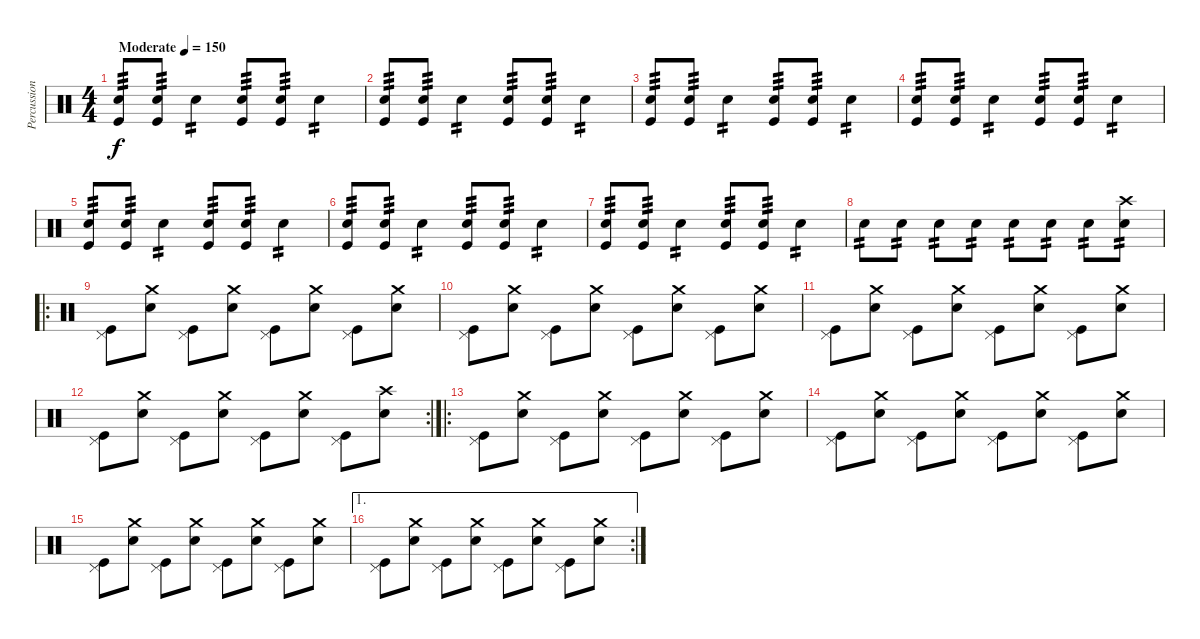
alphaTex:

\track ("Percussion" "Percussion") {instrument percussion}
\staff {score}
\articulation defaults
\ts (4 4)
\tempo (150 "Moderate")
\clef neutral
\ks c
("Snare (hit) 2" "Kick (hit)").8{tp 3 dy f} ("Snare (hit) 2" "Kick (hit)").8{tp 3} "Snare (hit) 2".4{tp 2} ("Snare (hit) 2" "Kick (hit)").8{tp 3} ("Snare (hit) 2" "Kick (hit)").8{tp 3} "Snare (hit) 2".4{tp 2} |
("Snare (hit) 2" "Kick (hit)").8{tp 3} ("Snare (hit) 2" "Kick (hit)").8{tp 3} "Snare (hit) 2".4{tp 2} ("Snare (hit) 2" "Kick (hit)").8{tp 3} ("Snare (hit) 2" "Kick (hit)").8{tp 3} "Snare (hit) 2".4{tp 2} |
("Snare (hit) 2" "Kick (hit)").8{tp 3} ("Snare (hit) 2" "Kick (hit)").8{tp 3} "Snare (hit) 2".4{tp 2} ("Snare (hit) 2" "Kick (hit)").8{tp 3} ("Snare (hit) 2" "Kick (hit)").8{tp 3} "Snare (hit) 2".4{tp 2} |
("Snare (hit) 2" "Kick (hit)").8{tp 3} ("Snare (hit) 2" "Kick (hit)").8{tp 3} "Snare (hit) 2".4{tp 2} ("Snare (hit) 2" "Kick (hit)").8{tp 3} ("Snare (hit) 2" "Kick (hit)").8{tp 3} "Snare (hit) 2".4{tp 2} |
("Snare (hit) 2" "Kick (hit)").8{tp 3} ("Snare (hit) 2" "Kick (hit)").8{tp 3} "Snare (hit) 2".4{tp 2} ("Snare (hit) 2" "Kick (hit)").8{tp 3} ("Snare (hit) 2" "Kick (hit)").8{tp 3} "Snare (hit) 2".4{tp 2} |
("Snare (hit) 2" "Kick (hit)").8{tp 3} ("Snare (hit) 2" "Kick (hit)").8{tp 3} "Snare (hit) 2".4{tp 2} ("Snare (hit) 2" "Kick (hit)").8{tp 3} ("Snare (hit) 2" "Kick (hit)").8{tp 3} "Snare (hit) 2".4{tp 2} |
("Snare (hit) 2" "Kick (hit)").8{tp 3} ("Snare (hit) 2" "Kick (hit)").8{tp 3} "Snare (hit) 2".4{tp 2} ("Snare (hit) 2" "Kick (hit)").8{tp 3} ("Snare (hit) 2" "Kick (hit)").8{tp 3} "Snare (hit) 2".4{tp 2} |
"Snare (hit) 2".8{tp 2} "Snare (hit) 2".8{tp 2} "Snare (hit) 2".8{tp 2} "Snare (hit) 2".8{tp 2} "Snare (hit) 2".8{tp 2} "Snare (hit) 2".8{tp 2} "Snare (hit) 2".8{tp 2} ("Crash high (hit)" "Snare (hit) 2").8{tp 2} |
\ro
("Pedal Hi-Hat (hit)" "Kick (hit)").8 ("Crash medium (hit)" "Snare (hit) 2").8 ("Pedal Hi-Hat (hit)" "Kick (hit)").8 ("Crash medium (hit)" "Snare (hit) 2").8 ("Pedal Hi-Hat (hit)" "Kick (hit)").8 ("Crash medium (hit)" "Snare (hit) 2").8 ("Pedal Hi-Hat (hit)" "Kick (hit)").8 ("Crash medium (hit)" "Snare (hit) 2").8 |
("Pedal Hi-Hat (hit)" "Kick (hit)").8 ("Crash medium (hit)" "Snare (hit) 2").8 ("Pedal Hi-Hat (hit)" "Kick (hit)").8 ("Crash medium (hit)" "Snare (hit) 2").8 ("Pedal Hi-Hat (hit)" "Kick (hit)").8 ("Crash medium (hit)" "Snare (hit) 2").8 ("Pedal Hi-Hat (hit)" "Kick (hit)").8 ("Crash medium (hit)" "Snare (hit) 2").8 |
("Pedal Hi-Hat (hit)" "Kick (hit)").8 ("Crash medium (hit)" "Snare (hit) 2").8 ("Pedal Hi-Hat (hit)" "Kick (hit)").8 ("Crash medium (hit)" "Snare (hit) 2").8 ("Pedal Hi-Hat (hit)" "Kick (hit)").8 ("Crash medium (hit)" "Snare (hit) 2").8 ("Pedal Hi-Hat (hit)" "Kick (hit)").8 ("Crash medium (hit)" "Snare (hit) 2").8 |
\rc 2
("Pedal Hi-Hat (hit)" "Kick (hit)").8 ("Crash medium (hit)" "Snare (hit) 2").8 ("Pedal Hi-Hat (hit)" "Kick (hit)").8 ("Crash medium (hit)" "Snare (hit) 2").8 ("Pedal Hi-Hat (hit)" "Kick (hit)").8 ("Crash medium (hit)" "Snare (hit) 2").8 ("Pedal Hi-Hat (hit)" "Kick (hit)").8 ("Crash high (hit)" "Snare (hit) 2").8 |
\ro
("Pedal Hi-Hat (hit)" "Kick (hit)").8 ("Crash medium (hit)" "Snare (hit) 2").8 ("Pedal Hi-Hat (hit)" "Kick (hit)").8 ("Crash medium (hit)" "Snare (hit) 2").8 ("Pedal Hi-Hat (hit)" "Kick (hit)").8 ("Crash medium (hit)" "Snare (hit) 2").8 ("Pedal Hi-Hat (hit)" "Kick (hit)").8 ("Crash medium (hit)" "Snare (hit) 2").8 |
("Pedal Hi-Hat (hit)" "Kick (hit)").8 ("Crash medium (hit)" "Snare (hit) 2").8 ("Pedal Hi-Hat (hit)" "Kick (hit)").8 ("Crash medium (hit)" "Snare (hit) 2").8 ("Pedal Hi-Hat (hit)" "Kick (hit)").8 ("Crash medium (hit)" "Snare (hit) 2").8 ("Pedal Hi-Hat (hit)" "Kick (hit)").8 ("Crash medium (hit)" "Snare (hit) 2").8 |
("Pedal Hi-Hat (hit)" "Kick (hit)").8 ("Crash medium (hit)" "Snare (hit) 2").8 ("Pedal Hi-Hat (hit)" "Kick (hit)").8 ("Crash medium (hit)" "Snare (hit) 2").8 ("Pedal Hi-Hat (hit)" "Kick (hit)").8 ("Crash medium (hit)" "Snare (hit) 2").8 ("Pedal Hi-Hat (hit)" "Kick (hit)").8 ("Crash medium (hit)" "Snare (hit) 2").8 |
\ae 1
\rc 2
("Pedal Hi-Hat (hit)" "Kick (hit)").8 ("Crash medium (hit)" "Snare (hit) 2").8 ("Pedal Hi-Hat (hit)" "Kick (hit)").8 ("Crash medium (hit)" "Snare (hit) 2").8 ("Pedal Hi-Hat (hit)" "Kick (hit)").8 ("Crash medium (hit)" "Snare (hit) 2").8 ("Pedal Hi-Hat (hit)" "Kick (hit)").8 ("Crash medium (hit)" "Snare (hit) 2").8
